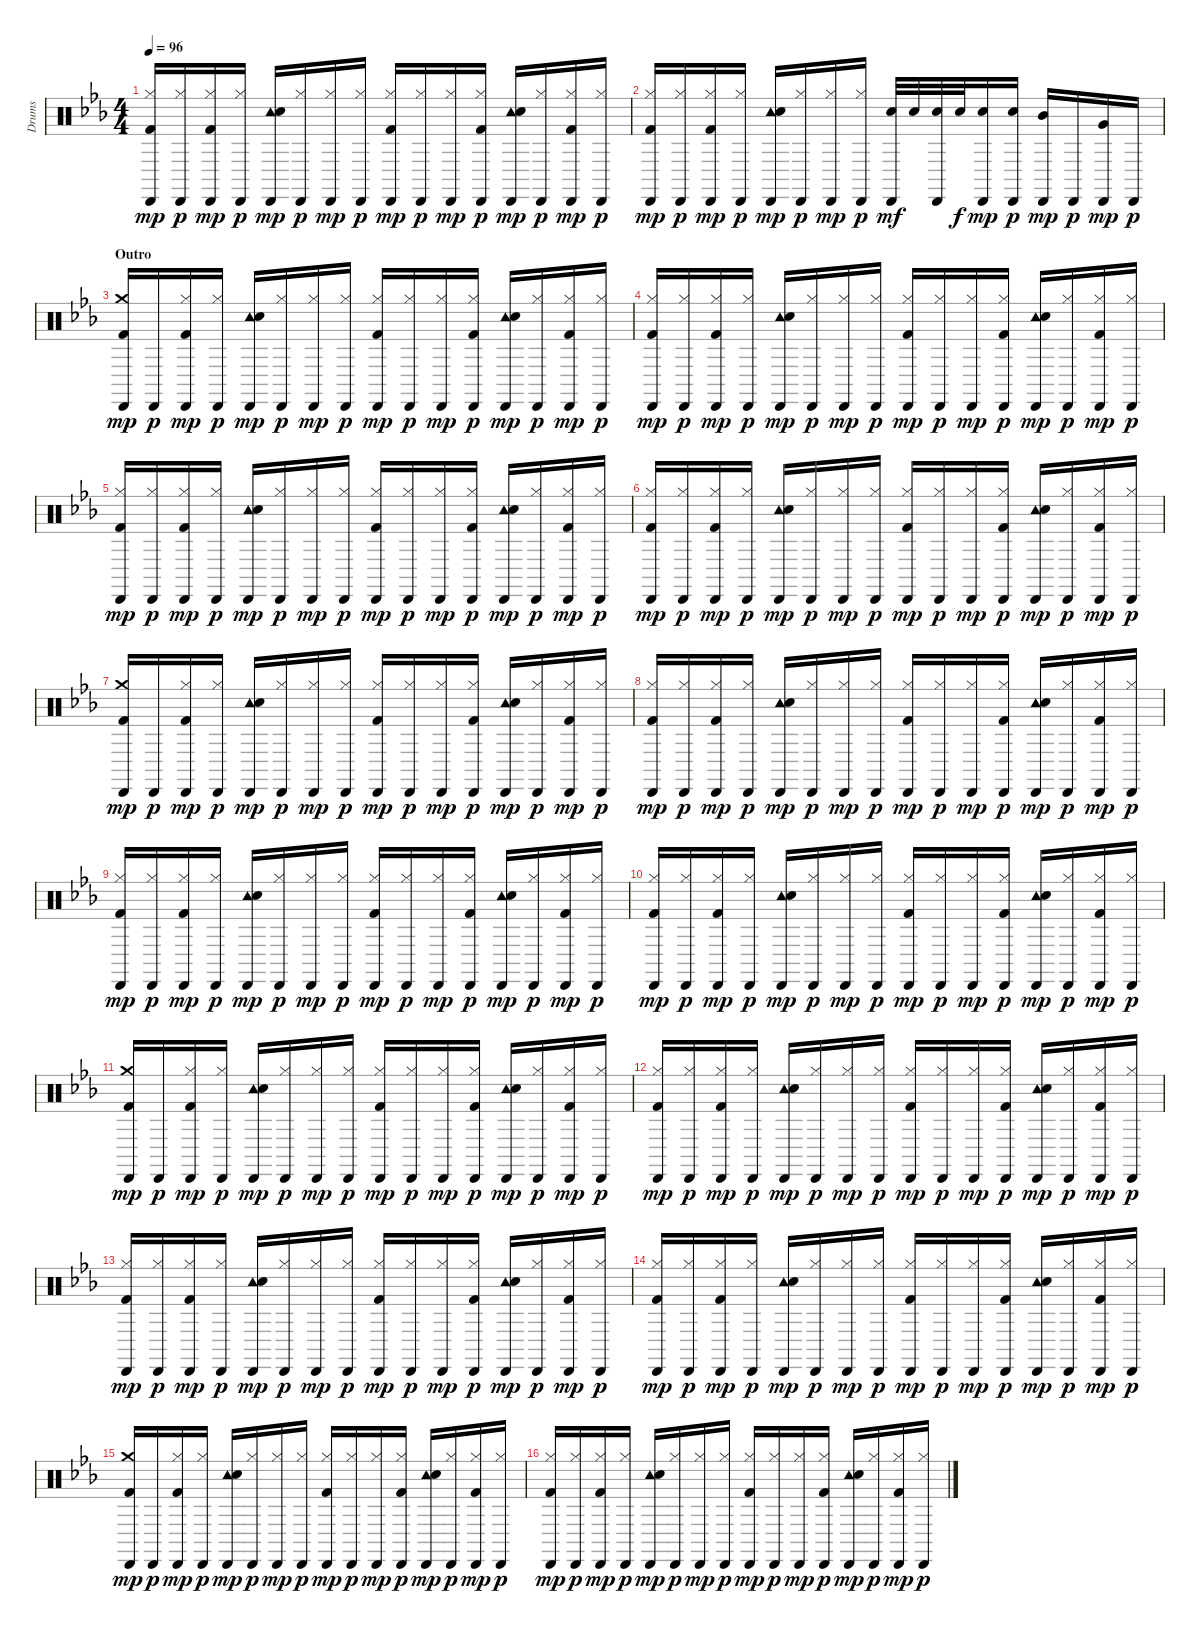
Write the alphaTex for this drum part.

\track ("Drums" "Drums") {instrument percussion}
\staff {score}
\articulation defaults
\ts (4 4)
\tempo 96
\clef neutral
\ks eb
("Kick (hit) 2" "Cabasa (hit)" "Hi-Hat (closed)").16{dy mp} ("Cabasa (hit)" "Hi-Hat (closed)").16{dy p} ("Kick (hit) 2" "Cabasa (hit)" "Hi-Hat (closed)").16{dy mp} ("Cabasa (hit)" "Hi-Hat (closed)").16{dy p} ("Tambourine (hit)" "Cabasa (hit)" "Snare (hit) 2").16{dy mp} ("Cabasa (hit)" "Hi-Hat (closed)").16{dy p} ("Cabasa (hit)" "Hi-Hat (closed)").16{dy mp} ("Cabasa (hit)" "Hi-Hat (closed)").16{dy p} ("Kick (hit) 2" "Cabasa (hit)" "Hi-Hat (closed)").16{dy mp} ("Cabasa (hit)" "Hi-Hat (closed)").16{dy p} ("Cabasa (hit)" "Hi-Hat (closed)").16{dy mp} ("Kick (hit) 2" "Cabasa (hit)" "Hi-Hat (closed)").16{dy p} ("Tambourine (hit)" "Cabasa (hit)" "Snare (hit) 2").16{dy mp} ("Cabasa (hit)" "Hi-Hat (closed)").16{dy p} ("Kick (hit) 2" "Cabasa (hit)" "Hi-Hat (closed)").16{dy mp} ("Cabasa (hit)" "Hi-Hat (closed)").16{dy p} |
("Kick (hit) 2" "Cabasa (hit)" "Hi-Hat (closed)").16{dy mp} ("Cabasa (hit)" "Hi-Hat (closed)").16{dy p} ("Kick (hit) 2" "Cabasa (hit)" "Hi-Hat (closed)").16{dy mp} ("Cabasa (hit)" "Hi-Hat (closed)").16{dy p} ("Tambourine (hit)" "Cabasa (hit)" "Snare (hit) 2").16{dy mp} ("Cabasa (hit)" "Hi-Hat (closed)").16{dy p} ("Cabasa (hit)" "Hi-Hat (closed)").16{dy mp} ("Cabasa (hit)" "Hi-Hat (closed)").16{dy p} ("Cabasa (hit)" "Snare (hit) 2").32{dy mf} "Snare (hit) 2".32 ("Cabasa (hit)" "Snare (hit) 2").32 "Snare (hit) 2".32{dy f} ("Cabasa (hit)" "Snare (hit) 2").16{dy mp} ("Cabasa (hit)" "Snare (hit) 2").16{dy p} ("Cabasa (hit)" "Mid Tom (hit)").16{dy mp} "Cabasa (hit)".16{dy p} ("Cabasa (hit)" "Very Low Tom (hit)").16{dy mp} "Cabasa (hit)".16{dy p} |
\section ("" "Outro")
("Kick (hit) 2" "Crash medium (hit)" "Cabasa (hit)").16{dy mp} "Cabasa (hit)".16{dy p} ("Kick (hit) 2" "Cabasa (hit)" "Hi-Hat (closed)").16{dy mp} ("Cabasa (hit)" "Hi-Hat (closed)").16{dy p} ("Tambourine (hit)" "Cabasa (hit)" "Snare (hit) 2").16{dy mp} ("Cabasa (hit)" "Hi-Hat (closed)").16{dy p} ("Cabasa (hit)" "Hi-Hat (closed)").16{dy mp} ("Cabasa (hit)" "Hi-Hat (closed)").16{dy p} ("Kick (hit) 2" "Cabasa (hit)" "Hi-Hat (closed)").16{dy mp} ("Cabasa (hit)" "Hi-Hat (closed)").16{dy p} ("Cabasa (hit)" "Hi-Hat (closed)").16{dy mp} ("Kick (hit) 2" "Cabasa (hit)" "Hi-Hat (closed)").16{dy p} ("Tambourine (hit)" "Cabasa (hit)" "Snare (hit) 2").16{dy mp} ("Cabasa (hit)" "Hi-Hat (closed)").16{dy p} ("Kick (hit) 2" "Cabasa (hit)" "Hi-Hat (closed)").16{dy mp} ("Cabasa (hit)" "Hi-Hat (closed)").16{dy p} |
("Kick (hit) 2" "Cabasa (hit)" "Hi-Hat (closed)").16{dy mp} ("Cabasa (hit)" "Hi-Hat (closed)").16{dy p} ("Kick (hit) 2" "Cabasa (hit)" "Hi-Hat (closed)").16{dy mp} ("Cabasa (hit)" "Hi-Hat (closed)").16{dy p} ("Tambourine (hit)" "Cabasa (hit)" "Snare (hit) 2").16{dy mp} ("Cabasa (hit)" "Hi-Hat (closed)").16{dy p} ("Cabasa (hit)" "Hi-Hat (closed)").16{dy mp} ("Cabasa (hit)" "Hi-Hat (closed)").16{dy p} ("Kick (hit) 2" "Cabasa (hit)" "Hi-Hat (closed)").16{dy mp} ("Cabasa (hit)" "Hi-Hat (closed)").16{dy p} ("Cabasa (hit)" "Hi-Hat (closed)").16{dy mp} ("Kick (hit) 2" "Cabasa (hit)" "Hi-Hat (closed)").16{dy p} ("Tambourine (hit)" "Cabasa (hit)" "Snare (hit) 2").16{dy mp} ("Cabasa (hit)" "Hi-Hat (closed)").16{dy p} ("Kick (hit) 2" "Cabasa (hit)" "Hi-Hat (closed)").16{dy mp} ("Cabasa (hit)" "Hi-Hat (closed)").16{dy p} |
("Kick (hit) 2" "Cabasa (hit)" "Hi-Hat (closed)").16{dy mp} ("Cabasa (hit)" "Hi-Hat (closed)").16{dy p} ("Kick (hit) 2" "Cabasa (hit)" "Hi-Hat (closed)").16{dy mp} ("Cabasa (hit)" "Hi-Hat (closed)").16{dy p} ("Tambourine (hit)" "Cabasa (hit)" "Snare (hit) 2").16{dy mp} ("Cabasa (hit)" "Hi-Hat (closed)").16{dy p} ("Cabasa (hit)" "Hi-Hat (closed)").16{dy mp} ("Cabasa (hit)" "Hi-Hat (closed)").16{dy p} ("Kick (hit) 2" "Cabasa (hit)" "Hi-Hat (closed)").16{dy mp} ("Cabasa (hit)" "Hi-Hat (closed)").16{dy p} ("Cabasa (hit)" "Hi-Hat (closed)").16{dy mp} ("Kick (hit) 2" "Cabasa (hit)" "Hi-Hat (closed)").16{dy p} ("Tambourine (hit)" "Cabasa (hit)" "Snare (hit) 2").16{dy mp} ("Cabasa (hit)" "Hi-Hat (closed)").16{dy p} ("Kick (hit) 2" "Cabasa (hit)" "Hi-Hat (closed)").16{dy mp} ("Cabasa (hit)" "Hi-Hat (closed)").16{dy p} |
("Kick (hit) 2" "Cabasa (hit)" "Hi-Hat (closed)").16{dy mp} ("Cabasa (hit)" "Hi-Hat (closed)").16{dy p} ("Kick (hit) 2" "Cabasa (hit)" "Hi-Hat (closed)").16{dy mp} ("Cabasa (hit)" "Hi-Hat (closed)").16{dy p} ("Tambourine (hit)" "Cabasa (hit)" "Snare (hit) 2").16{dy mp} ("Cabasa (hit)" "Hi-Hat (closed)").16{dy p} ("Cabasa (hit)" "Hi-Hat (closed)").16{dy mp} ("Cabasa (hit)" "Hi-Hat (closed)").16{dy p} ("Kick (hit) 2" "Cabasa (hit)" "Hi-Hat (closed)").16{dy mp} ("Cabasa (hit)" "Hi-Hat (closed)").16{dy p} ("Cabasa (hit)" "Hi-Hat (closed)").16{dy mp} ("Kick (hit) 2" "Cabasa (hit)" "Hi-Hat (closed)").16{dy p} ("Tambourine (hit)" "Cabasa (hit)" "Snare (hit) 2").16{dy mp} ("Cabasa (hit)" "Hi-Hat (closed)").16{dy p} ("Kick (hit) 2" "Cabasa (hit)" "Hi-Hat (closed)").16{dy mp} ("Cabasa (hit)" "Hi-Hat (closed)").16{dy p} |
("Kick (hit) 2" "Crash medium (hit)" "Cabasa (hit)").16{dy mp} "Cabasa (hit)".16{dy p} ("Kick (hit) 2" "Cabasa (hit)" "Hi-Hat (closed)").16{dy mp} ("Cabasa (hit)" "Hi-Hat (closed)").16{dy p} ("Tambourine (hit)" "Cabasa (hit)" "Snare (hit) 2").16{dy mp} ("Cabasa (hit)" "Hi-Hat (closed)").16{dy p} ("Cabasa (hit)" "Hi-Hat (closed)").16{dy mp} ("Cabasa (hit)" "Hi-Hat (closed)").16{dy p} ("Kick (hit) 2" "Cabasa (hit)" "Hi-Hat (closed)").16{dy mp} ("Cabasa (hit)" "Hi-Hat (closed)").16{dy p} ("Cabasa (hit)" "Hi-Hat (closed)").16{dy mp} ("Kick (hit) 2" "Cabasa (hit)" "Hi-Hat (closed)").16{dy p} ("Tambourine (hit)" "Cabasa (hit)" "Snare (hit) 2").16{dy mp} ("Cabasa (hit)" "Hi-Hat (closed)").16{dy p} ("Kick (hit) 2" "Cabasa (hit)" "Hi-Hat (closed)").16{dy mp} ("Cabasa (hit)" "Hi-Hat (closed)").16{dy p} |
("Kick (hit) 2" "Cabasa (hit)" "Hi-Hat (closed)").16{dy mp} ("Cabasa (hit)" "Hi-Hat (closed)").16{dy p} ("Kick (hit) 2" "Cabasa (hit)" "Hi-Hat (closed)").16{dy mp} ("Cabasa (hit)" "Hi-Hat (closed)").16{dy p} ("Tambourine (hit)" "Cabasa (hit)" "Snare (hit) 2").16{dy mp} ("Cabasa (hit)" "Hi-Hat (closed)").16{dy p} ("Cabasa (hit)" "Hi-Hat (closed)").16{dy mp} ("Cabasa (hit)" "Hi-Hat (closed)").16{dy p} ("Kick (hit) 2" "Cabasa (hit)" "Hi-Hat (closed)").16{dy mp} ("Cabasa (hit)" "Hi-Hat (closed)").16{dy p} ("Cabasa (hit)" "Hi-Hat (closed)").16{dy mp} ("Kick (hit) 2" "Cabasa (hit)" "Hi-Hat (closed)").16{dy p} ("Tambourine (hit)" "Cabasa (hit)" "Snare (hit) 2").16{dy mp} ("Cabasa (hit)" "Hi-Hat (closed)").16{dy p} ("Kick (hit) 2" "Cabasa (hit)" "Hi-Hat (closed)").16{dy mp} ("Cabasa (hit)" "Hi-Hat (closed)").16{dy p} |
("Kick (hit) 2" "Cabasa (hit)" "Hi-Hat (closed)").16{dy mp} ("Cabasa (hit)" "Hi-Hat (closed)").16{dy p} ("Kick (hit) 2" "Cabasa (hit)" "Hi-Hat (closed)").16{dy mp} ("Cabasa (hit)" "Hi-Hat (closed)").16{dy p} ("Tambourine (hit)" "Cabasa (hit)" "Snare (hit) 2").16{dy mp} ("Cabasa (hit)" "Hi-Hat (closed)").16{dy p} ("Cabasa (hit)" "Hi-Hat (closed)").16{dy mp} ("Cabasa (hit)" "Hi-Hat (closed)").16{dy p} ("Kick (hit) 2" "Cabasa (hit)" "Hi-Hat (closed)").16{dy mp} ("Cabasa (hit)" "Hi-Hat (closed)").16{dy p} ("Cabasa (hit)" "Hi-Hat (closed)").16{dy mp} ("Kick (hit) 2" "Cabasa (hit)" "Hi-Hat (closed)").16{dy p} ("Tambourine (hit)" "Cabasa (hit)" "Snare (hit) 2").16{dy mp} ("Cabasa (hit)" "Hi-Hat (closed)").16{dy p} ("Kick (hit) 2" "Cabasa (hit)" "Hi-Hat (closed)").16{dy mp} ("Cabasa (hit)" "Hi-Hat (closed)").16{dy p} |
("Kick (hit) 2" "Cabasa (hit)" "Hi-Hat (closed)").16{dy mp} ("Cabasa (hit)" "Hi-Hat (closed)").16{dy p} ("Kick (hit) 2" "Cabasa (hit)" "Hi-Hat (closed)").16{dy mp} ("Cabasa (hit)" "Hi-Hat (closed)").16{dy p} ("Tambourine (hit)" "Cabasa (hit)" "Snare (hit) 2").16{dy mp} ("Cabasa (hit)" "Hi-Hat (closed)").16{dy p} ("Cabasa (hit)" "Hi-Hat (closed)").16{dy mp} ("Cabasa (hit)" "Hi-Hat (closed)").16{dy p} ("Kick (hit) 2" "Cabasa (hit)" "Hi-Hat (closed)").16{dy mp} ("Cabasa (hit)" "Hi-Hat (closed)").16{dy p} ("Cabasa (hit)" "Hi-Hat (closed)").16{dy mp} ("Kick (hit) 2" "Cabasa (hit)" "Hi-Hat (closed)").16{dy p} ("Tambourine (hit)" "Cabasa (hit)" "Snare (hit) 2").16{dy mp} ("Cabasa (hit)" "Hi-Hat (closed)").16{dy p} ("Kick (hit) 2" "Cabasa (hit)" "Hi-Hat (closed)").16{dy mp} ("Cabasa (hit)" "Hi-Hat (closed)").16{dy p} |
("Kick (hit) 2" "Crash medium (hit)" "Cabasa (hit)").16{dy mp} "Cabasa (hit)".16{dy p} ("Kick (hit) 2" "Cabasa (hit)" "Hi-Hat (closed)").16{dy mp} ("Cabasa (hit)" "Hi-Hat (closed)").16{dy p} ("Tambourine (hit)" "Cabasa (hit)" "Snare (hit) 2").16{dy mp} ("Cabasa (hit)" "Hi-Hat (closed)").16{dy p} ("Cabasa (hit)" "Hi-Hat (closed)").16{dy mp} ("Cabasa (hit)" "Hi-Hat (closed)").16{dy p} ("Kick (hit) 2" "Cabasa (hit)" "Hi-Hat (closed)").16{dy mp} ("Cabasa (hit)" "Hi-Hat (closed)").16{dy p} ("Cabasa (hit)" "Hi-Hat (closed)").16{dy mp} ("Kick (hit) 2" "Cabasa (hit)" "Hi-Hat (closed)").16{dy p} ("Tambourine (hit)" "Cabasa (hit)" "Snare (hit) 2").16{dy mp} ("Cabasa (hit)" "Hi-Hat (closed)").16{dy p} ("Kick (hit) 2" "Cabasa (hit)" "Hi-Hat (closed)").16{dy mp} ("Cabasa (hit)" "Hi-Hat (closed)").16{dy p} |
("Kick (hit) 2" "Cabasa (hit)" "Hi-Hat (closed)").16{dy mp} ("Cabasa (hit)" "Hi-Hat (closed)").16{dy p} ("Kick (hit) 2" "Cabasa (hit)" "Hi-Hat (closed)").16{dy mp} ("Cabasa (hit)" "Hi-Hat (closed)").16{dy p} ("Tambourine (hit)" "Cabasa (hit)" "Snare (hit) 2").16{dy mp} ("Cabasa (hit)" "Hi-Hat (closed)").16{dy p} ("Cabasa (hit)" "Hi-Hat (closed)").16{dy mp} ("Cabasa (hit)" "Hi-Hat (closed)").16{dy p} ("Kick (hit) 2" "Cabasa (hit)" "Hi-Hat (closed)").16{dy mp} ("Cabasa (hit)" "Hi-Hat (closed)").16{dy p} ("Cabasa (hit)" "Hi-Hat (closed)").16{dy mp} ("Kick (hit) 2" "Cabasa (hit)" "Hi-Hat (closed)").16{dy p} ("Tambourine (hit)" "Cabasa (hit)" "Snare (hit) 2").16{dy mp} ("Cabasa (hit)" "Hi-Hat (closed)").16{dy p} ("Kick (hit) 2" "Cabasa (hit)" "Hi-Hat (closed)").16{dy mp} ("Cabasa (hit)" "Hi-Hat (closed)").16{dy p} |
("Kick (hit) 2" "Cabasa (hit)" "Hi-Hat (closed)").16{dy mp} ("Cabasa (hit)" "Hi-Hat (closed)").16{dy p} ("Kick (hit) 2" "Cabasa (hit)" "Hi-Hat (closed)").16{dy mp} ("Cabasa (hit)" "Hi-Hat (closed)").16{dy p} ("Tambourine (hit)" "Cabasa (hit)" "Snare (hit) 2").16{dy mp} ("Cabasa (hit)" "Hi-Hat (closed)").16{dy p} ("Cabasa (hit)" "Hi-Hat (closed)").16{dy mp} ("Cabasa (hit)" "Hi-Hat (closed)").16{dy p} ("Kick (hit) 2" "Cabasa (hit)" "Hi-Hat (closed)").16{dy mp} ("Cabasa (hit)" "Hi-Hat (closed)").16{dy p} ("Cabasa (hit)" "Hi-Hat (closed)").16{dy mp} ("Kick (hit) 2" "Cabasa (hit)" "Hi-Hat (closed)").16{dy p} ("Tambourine (hit)" "Cabasa (hit)" "Snare (hit) 2").16{dy mp} ("Cabasa (hit)" "Hi-Hat (closed)").16{dy p} ("Kick (hit) 2" "Cabasa (hit)" "Hi-Hat (closed)").16{dy mp} ("Cabasa (hit)" "Hi-Hat (closed)").16{dy p} |
("Kick (hit) 2" "Cabasa (hit)" "Hi-Hat (closed)").16{dy mp} ("Cabasa (hit)" "Hi-Hat (closed)").16{dy p} ("Kick (hit) 2" "Cabasa (hit)" "Hi-Hat (closed)").16{dy mp} ("Cabasa (hit)" "Hi-Hat (closed)").16{dy p} ("Tambourine (hit)" "Cabasa (hit)" "Snare (hit) 2").16{dy mp} ("Cabasa (hit)" "Hi-Hat (closed)").16{dy p} ("Cabasa (hit)" "Hi-Hat (closed)").16{dy mp} ("Cabasa (hit)" "Hi-Hat (closed)").16{dy p} ("Kick (hit) 2" "Cabasa (hit)" "Hi-Hat (closed)").16{dy mp} ("Cabasa (hit)" "Hi-Hat (closed)").16{dy p} ("Cabasa (hit)" "Hi-Hat (closed)").16{dy mp} ("Kick (hit) 2" "Cabasa (hit)" "Hi-Hat (closed)").16{dy p} ("Tambourine (hit)" "Cabasa (hit)" "Snare (hit) 2").16{dy mp} ("Cabasa (hit)" "Hi-Hat (closed)").16{dy p} ("Kick (hit) 2" "Cabasa (hit)" "Hi-Hat (closed)").16{dy mp} ("Cabasa (hit)" "Hi-Hat (closed)").16{dy p} |
("Kick (hit) 2" "Crash medium (hit)" "Cabasa (hit)").16{dy mp} "Cabasa (hit)".16{dy p} ("Kick (hit) 2" "Cabasa (hit)" "Hi-Hat (closed)").16{dy mp} ("Cabasa (hit)" "Hi-Hat (closed)").16{dy p} ("Tambourine (hit)" "Cabasa (hit)" "Snare (hit) 2").16{dy mp} ("Cabasa (hit)" "Hi-Hat (closed)").16{dy p} ("Cabasa (hit)" "Hi-Hat (closed)").16{dy mp} ("Cabasa (hit)" "Hi-Hat (closed)").16{dy p} ("Kick (hit) 2" "Cabasa (hit)" "Hi-Hat (closed)").16{dy mp} ("Cabasa (hit)" "Hi-Hat (closed)").16{dy p} ("Cabasa (hit)" "Hi-Hat (closed)").16{dy mp} ("Kick (hit) 2" "Cabasa (hit)" "Hi-Hat (closed)").16{dy p} ("Tambourine (hit)" "Cabasa (hit)" "Snare (hit) 2").16{dy mp} ("Cabasa (hit)" "Hi-Hat (closed)").16{dy p} ("Kick (hit) 2" "Cabasa (hit)" "Hi-Hat (closed)").16{dy mp} ("Cabasa (hit)" "Hi-Hat (closed)").16{dy p} |
("Kick (hit) 2" "Cabasa (hit)" "Hi-Hat (closed)").16{dy mp} ("Cabasa (hit)" "Hi-Hat (closed)").16{dy p} ("Kick (hit) 2" "Cabasa (hit)" "Hi-Hat (closed)").16{dy mp} ("Cabasa (hit)" "Hi-Hat (closed)").16{dy p} ("Tambourine (hit)" "Cabasa (hit)" "Snare (hit) 2").16{dy mp} ("Cabasa (hit)" "Hi-Hat (closed)").16{dy p} ("Cabasa (hit)" "Hi-Hat (closed)").16{dy mp} ("Cabasa (hit)" "Hi-Hat (closed)").16{dy p} ("Kick (hit) 2" "Cabasa (hit)" "Hi-Hat (closed)").16{dy mp} ("Cabasa (hit)" "Hi-Hat (closed)").16{dy p} ("Cabasa (hit)" "Hi-Hat (closed)").16{dy mp} ("Kick (hit) 2" "Cabasa (hit)" "Hi-Hat (closed)").16{dy p} ("Tambourine (hit)" "Cabasa (hit)" "Snare (hit) 2").16{dy mp} ("Cabasa (hit)" "Hi-Hat (closed)").16{dy p} ("Kick (hit) 2" "Cabasa (hit)" "Hi-Hat (closed)").16{dy mp} ("Cabasa (hit)" "Hi-Hat (closed)").16{dy p}
